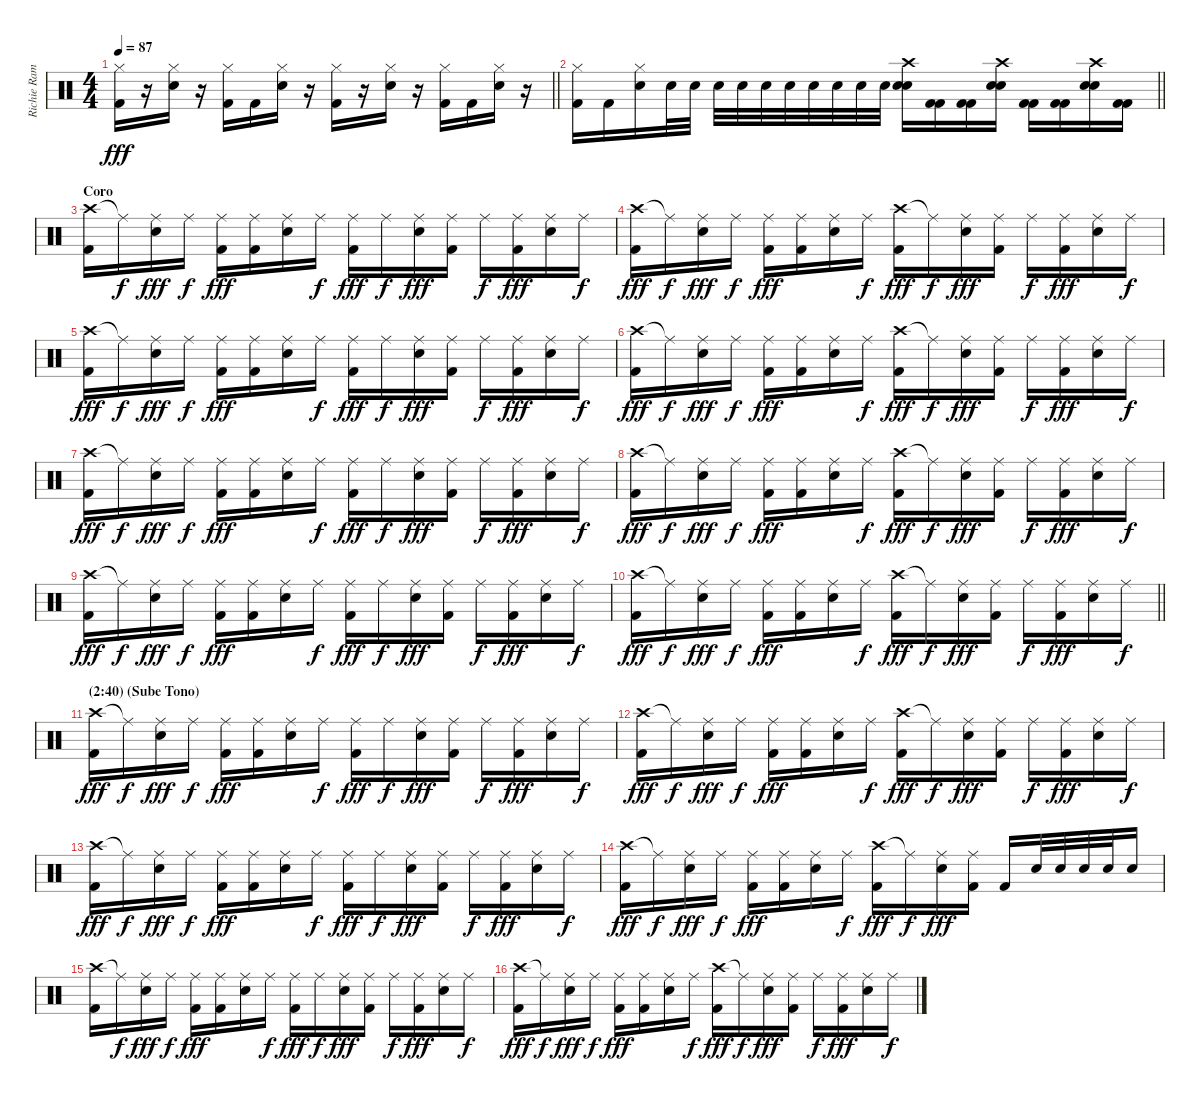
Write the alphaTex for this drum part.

\track ("Richie Ramone " "Richie Ram") {instrument percussion}
\staff {score}
\articulation defaults
\ts (4 4)
\tempo 87
\clef neutral
\barLineRight lightlight
\ks c
("Hi-Hat (closed)" "Kick (hit) 2").16{dy fff} r.16 ("Hi-Hat (closed)" "Electric Snare (hit)").16 r.16 ("Hi-Hat (closed)" "Kick (hit) 2").16 "Kick (hit) 2".16 ("Hi-Hat (closed)" "Electric Snare (hit)").16 r.16 ("Hi-Hat (closed)" "Kick (hit) 2").16 r.16 ("Hi-Hat (closed)" "Electric Snare (hit)").16 r.16 ("Hi-Hat (closed)" "Kick (hit) 2").16 "Kick (hit) 2".16 ("Hi-Hat (closed)" "Electric Snare (hit)").16 r.16 |
\barLineRight lightlight
("Hi-Hat (closed)" "Kick (hit) 2").16 "Kick (hit) 2".16 ("Hi-Hat (closed)" "Electric Snare (hit)").16 "Electric Snare (hit)".32 "Electric Snare (hit)".32 "Electric Snare (hit)".32 "Electric Snare (hit)".32 "Electric Snare (hit)".32 "Electric Snare (hit)".32 "Electric Snare (hit)".32 "Electric Snare (hit)".32 "Electric Snare (hit)".32 "Electric Snare (hit)".32 ("Crash high (hit)" "Electric Snare (hit)" "Electric Snare (hit)").16 ("Kick (hit) 2" "Kick (hit) 2").16 ("Kick (hit) 2" "Kick (hit) 2").16 ("Crash high (hit)" "Electric Snare (hit)" "Electric Snare (hit)").16 ("Kick (hit) 2" "Kick (hit) 2").16 ("Kick (hit) 2" "Kick (hit) 2").16 ("Crash high (hit)" "Electric Snare (hit)" "Electric Snare (hit)").16 ("Kick (hit) 2" "Kick (hit) 2").16 |
\section ("" "Coro")
("Crash high (hit)" "Kick (hit) 2").16 "Ride (middle)"{t}.16{dy f} ("Ride (middle)" "Electric Snare (hit)").16{dy fff} "Ride (middle)".16{dy f} ("Ride (middle)" "Kick (hit) 2").16{dy fff} ("Ride (middle)" "Kick (hit) 2").16 ("Ride (middle)" "Electric Snare (hit)").16 "Ride (middle)".16{dy f} ("Ride (middle)" "Kick (hit) 2").16{dy fff} "Ride (middle)".16{dy f} ("Ride (middle)" "Electric Snare (hit)").16{dy fff} ("Ride (middle)" "Kick (hit) 2").16 "Ride (middle)".16{dy f} ("Ride (middle)" "Kick (hit) 2").16{dy fff} ("Ride (middle)" "Electric Snare (hit)").16 "Ride (middle)".16{dy f} |
("Crash high (hit)" "Kick (hit) 2").16{dy fff} "Ride (middle)"{t}.16{dy f} ("Ride (middle)" "Electric Snare (hit)").16{dy fff} "Ride (middle)".16{dy f} ("Ride (middle)" "Kick (hit) 2").16{dy fff} ("Ride (middle)" "Kick (hit) 2").16 ("Ride (middle)" "Electric Snare (hit)").16 "Ride (middle)".16{dy f} ("Crash high (hit)" "Kick (hit) 2").16{dy fff} "Ride (middle)"{t}.16{dy f} ("Ride (middle)" "Electric Snare (hit)").16{dy fff} ("Ride (middle)" "Kick (hit) 2").16 "Ride (middle)".16{dy f} ("Ride (middle)" "Kick (hit) 2").16{dy fff} ("Ride (middle)" "Electric Snare (hit)").16 "Ride (middle)".16{dy f} |
("Crash high (hit)" "Kick (hit) 2").16{dy fff} "Ride (middle)"{t}.16{dy f} ("Ride (middle)" "Electric Snare (hit)").16{dy fff} "Ride (middle)".16{dy f} ("Ride (middle)" "Kick (hit) 2").16{dy fff} ("Ride (middle)" "Kick (hit) 2").16 ("Ride (middle)" "Electric Snare (hit)").16 "Ride (middle)".16{dy f} ("Ride (middle)" "Kick (hit) 2").16{dy fff} "Ride (middle)".16{dy f} ("Ride (middle)" "Electric Snare (hit)").16{dy fff} ("Ride (middle)" "Kick (hit) 2").16 "Ride (middle)".16{dy f} ("Ride (middle)" "Kick (hit) 2").16{dy fff} ("Ride (middle)" "Electric Snare (hit)").16 "Ride (middle)".16{dy f} |
("Crash high (hit)" "Kick (hit) 2").16{dy fff} "Ride (middle)"{t}.16{dy f} ("Ride (middle)" "Electric Snare (hit)").16{dy fff} "Ride (middle)".16{dy f} ("Ride (middle)" "Kick (hit) 2").16{dy fff} ("Ride (middle)" "Kick (hit) 2").16 ("Ride (middle)" "Electric Snare (hit)").16 "Ride (middle)".16{dy f} ("Crash high (hit)" "Kick (hit) 2").16{dy fff} "Ride (middle)"{t}.16{dy f} ("Ride (middle)" "Electric Snare (hit)").16{dy fff} ("Ride (middle)" "Kick (hit) 2").16 "Ride (middle)".16{dy f} ("Ride (middle)" "Kick (hit) 2").16{dy fff} ("Ride (middle)" "Electric Snare (hit)").16 "Ride (middle)".16{dy f} |
("Crash high (hit)" "Kick (hit) 2").16{dy fff} "Ride (middle)"{t}.16{dy f} ("Ride (middle)" "Electric Snare (hit)").16{dy fff} "Ride (middle)".16{dy f} ("Ride (middle)" "Kick (hit) 2").16{dy fff} ("Ride (middle)" "Kick (hit) 2").16 ("Ride (middle)" "Electric Snare (hit)").16 "Ride (middle)".16{dy f} ("Ride (middle)" "Kick (hit) 2").16{dy fff} "Ride (middle)".16{dy f} ("Ride (middle)" "Electric Snare (hit)").16{dy fff} ("Ride (middle)" "Kick (hit) 2").16 "Ride (middle)".16{dy f} ("Ride (middle)" "Kick (hit) 2").16{dy fff} ("Ride (middle)" "Electric Snare (hit)").16 "Ride (middle)".16{dy f} |
("Crash high (hit)" "Kick (hit) 2").16{dy fff} "Ride (middle)"{t}.16{dy f} ("Ride (middle)" "Electric Snare (hit)").16{dy fff} "Ride (middle)".16{dy f} ("Ride (middle)" "Kick (hit) 2").16{dy fff} ("Ride (middle)" "Kick (hit) 2").16 ("Ride (middle)" "Electric Snare (hit)").16 "Ride (middle)".16{dy f} ("Crash high (hit)" "Kick (hit) 2").16{dy fff} "Ride (middle)"{t}.16{dy f} ("Ride (middle)" "Electric Snare (hit)").16{dy fff} ("Ride (middle)" "Kick (hit) 2").16 "Ride (middle)".16{dy f} ("Ride (middle)" "Kick (hit) 2").16{dy fff} ("Ride (middle)" "Electric Snare (hit)").16 "Ride (middle)".16{dy f} |
("Crash high (hit)" "Kick (hit) 2").16{dy fff} "Ride (middle)"{t}.16{dy f} ("Ride (middle)" "Electric Snare (hit)").16{dy fff} "Ride (middle)".16{dy f} ("Ride (middle)" "Kick (hit) 2").16{dy fff} ("Ride (middle)" "Kick (hit) 2").16 ("Ride (middle)" "Electric Snare (hit)").16 "Ride (middle)".16{dy f} ("Ride (middle)" "Kick (hit) 2").16{dy fff} "Ride (middle)".16{dy f} ("Ride (middle)" "Electric Snare (hit)").16{dy fff} ("Ride (middle)" "Kick (hit) 2").16 "Ride (middle)".16{dy f} ("Ride (middle)" "Kick (hit) 2").16{dy fff} ("Ride (middle)" "Electric Snare (hit)").16 "Ride (middle)".16{dy f} |
\barLineRight lightlight
("Crash high (hit)" "Kick (hit) 2").16{dy fff} "Ride (middle)"{t}.16{dy f} ("Ride (middle)" "Electric Snare (hit)").16{dy fff} "Ride (middle)".16{dy f} ("Ride (middle)" "Kick (hit) 2").16{dy fff} ("Ride (middle)" "Kick (hit) 2").16 ("Ride (middle)" "Electric Snare (hit)").16 "Ride (middle)".16{dy f} ("Crash high (hit)" "Kick (hit) 2").16{dy fff} "Ride (middle)"{t}.16{dy f} ("Ride (middle)" "Electric Snare (hit)").16{dy fff} ("Ride (middle)" "Kick (hit) 2").16 "Ride (middle)".16{dy f} ("Ride (middle)" "Kick (hit) 2").16{dy fff} ("Ride (middle)" "Electric Snare (hit)").16 "Ride (middle)".16{dy f} |
\section ("" "(2:40) (Sube Tono)")
("Crash high (hit)" "Kick (hit) 2").16{dy fff} "Ride (middle)"{t}.16{dy f} ("Ride (middle)" "Electric Snare (hit)").16{dy fff} "Ride (middle)".16{dy f} ("Ride (middle)" "Kick (hit) 2").16{dy fff} ("Ride (middle)" "Kick (hit) 2").16 ("Ride (middle)" "Electric Snare (hit)").16 "Ride (middle)".16{dy f} ("Ride (middle)" "Kick (hit) 2").16{dy fff} "Ride (middle)".16{dy f} ("Ride (middle)" "Electric Snare (hit)").16{dy fff} ("Ride (middle)" "Kick (hit) 2").16 "Ride (middle)".16{dy f} ("Ride (middle)" "Kick (hit) 2").16{dy fff} ("Ride (middle)" "Electric Snare (hit)").16 "Ride (middle)".16{dy f} |
("Crash high (hit)" "Kick (hit) 2").16{dy fff} "Ride (middle)"{t}.16{dy f} ("Ride (middle)" "Electric Snare (hit)").16{dy fff} "Ride (middle)".16{dy f} ("Ride (middle)" "Kick (hit) 2").16{dy fff} ("Ride (middle)" "Kick (hit) 2").16 ("Ride (middle)" "Electric Snare (hit)").16 "Ride (middle)".16{dy f} ("Crash high (hit)" "Kick (hit) 2").16{dy fff} "Ride (middle)"{t}.16{dy f} ("Ride (middle)" "Electric Snare (hit)").16{dy fff} ("Ride (middle)" "Kick (hit) 2").16 "Ride (middle)".16{dy f} ("Ride (middle)" "Kick (hit) 2").16{dy fff} ("Ride (middle)" "Electric Snare (hit)").16 "Ride (middle)".16{dy f} |
("Crash high (hit)" "Kick (hit) 2").16{dy fff} "Ride (middle)"{t}.16{dy f} ("Ride (middle)" "Electric Snare (hit)").16{dy fff} "Ride (middle)".16{dy f} ("Ride (middle)" "Kick (hit) 2").16{dy fff} ("Ride (middle)" "Kick (hit) 2").16 ("Ride (middle)" "Electric Snare (hit)").16 "Ride (middle)".16{dy f} ("Ride (middle)" "Kick (hit) 2").16{dy fff} "Ride (middle)".16{dy f} ("Ride (middle)" "Electric Snare (hit)").16{dy fff} ("Ride (middle)" "Kick (hit) 2").16 "Ride (middle)".16{dy f} ("Ride (middle)" "Kick (hit) 2").16{dy fff} ("Ride (middle)" "Electric Snare (hit)").16 "Ride (middle)".16{dy f} |
("Crash high (hit)" "Kick (hit) 2").16{dy fff} "Ride (middle)"{t}.16{dy f} ("Ride (middle)" "Electric Snare (hit)").16{dy fff} "Ride (middle)".16{dy f} ("Ride (middle)" "Kick (hit) 2").16{dy fff} ("Ride (middle)" "Kick (hit) 2").16 ("Ride (middle)" "Electric Snare (hit)").16 "Ride (middle)".16{dy f} ("Crash high (hit)" "Kick (hit) 2").16{dy fff} "Ride (middle)"{t}.16{dy f} ("Ride (middle)" "Electric Snare (hit)").16{dy fff} ("Ride (middle)" "Kick (hit) 2").16 "Kick (hit) 2".16 "Electric Snare (hit)".32 "Electric Snare (hit)".32 "Electric Snare (hit)".32 "Electric Snare (hit)".32 "Electric Snare (hit)".16 |
("Crash high (hit)" "Kick (hit) 2").16 "Ride (middle)"{t}.16{dy f} ("Ride (middle)" "Electric Snare (hit)").16{dy fff} "Ride (middle)".16{dy f} ("Ride (middle)" "Kick (hit) 2").16{dy fff} ("Ride (middle)" "Kick (hit) 2").16 ("Ride (middle)" "Electric Snare (hit)").16 "Ride (middle)".16{dy f} ("Ride (middle)" "Kick (hit) 2").16{dy fff} "Ride (middle)".16{dy f} ("Ride (middle)" "Electric Snare (hit)").16{dy fff} ("Ride (middle)" "Kick (hit) 2").16 "Ride (middle)".16{dy f} ("Ride (middle)" "Kick (hit) 2").16{dy fff} ("Ride (middle)" "Electric Snare (hit)").16 "Ride (middle)".16{dy f} |
("Crash high (hit)" "Kick (hit) 2").16{dy fff} "Ride (middle)"{t}.16{dy f} ("Ride (middle)" "Electric Snare (hit)").16{dy fff} "Ride (middle)".16{dy f} ("Ride (middle)" "Kick (hit) 2").16{dy fff} ("Ride (middle)" "Kick (hit) 2").16 ("Ride (middle)" "Electric Snare (hit)").16 "Ride (middle)".16{dy f} ("Crash high (hit)" "Kick (hit) 2").16{dy fff} "Ride (middle)"{t}.16{dy f} ("Ride (middle)" "Electric Snare (hit)").16{dy fff} ("Ride (middle)" "Kick (hit) 2").16 "Ride (middle)".16{dy f} ("Ride (middle)" "Kick (hit) 2").16{dy fff} ("Ride (middle)" "Electric Snare (hit)").16 "Ride (middle)".16{dy f}
